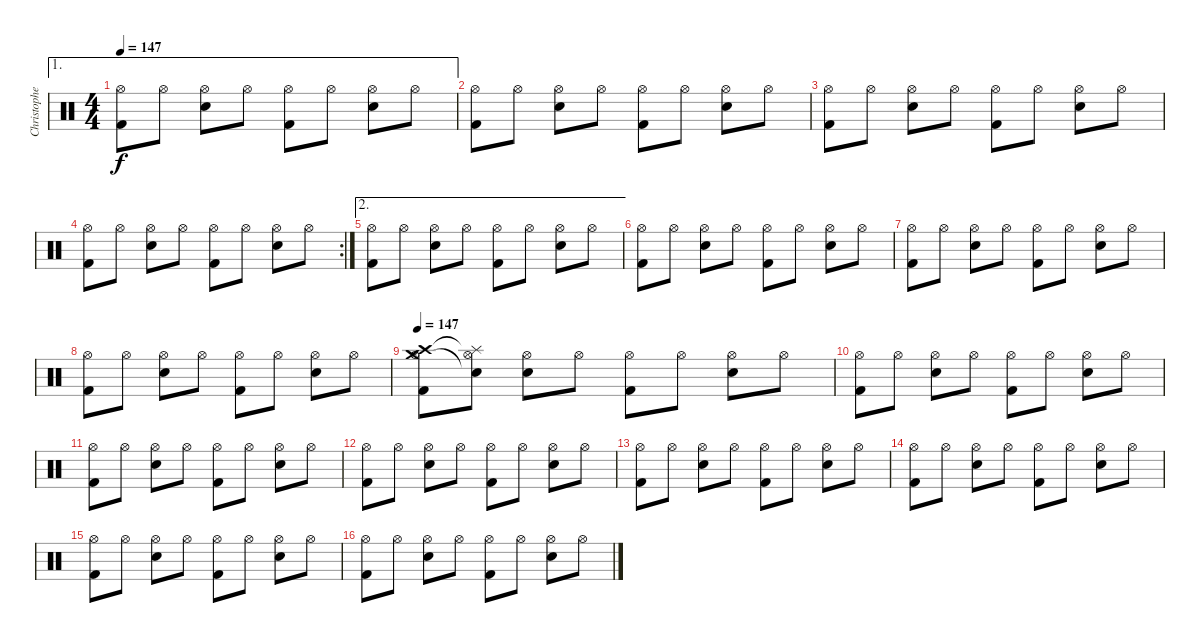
\track ("Christopher Schneider  (Drums)" "Christophe") {instrument percussion}
\staff {score}
\articulation defaults
\ae 1
\ts (4 4)
\tempo 147
\clef neutral
\ks c
("Hi-Hat (open)" "Kick (hit) 2").8{dy f} "Hi-Hat (open)".8 ("Hi-Hat (open)" "Electric Snare (hit)").8 "Hi-Hat (open)".8 ("Hi-Hat (open)" "Kick (hit) 2").8 "Hi-Hat (open)".8 ("Hi-Hat (open)" "Electric Snare (hit)").8 "Hi-Hat (open)".8 |
("Hi-Hat (open)" "Kick (hit) 2").8 "Hi-Hat (open)".8 ("Hi-Hat (open)" "Electric Snare (hit)").8 "Hi-Hat (open)".8 ("Hi-Hat (open)" "Kick (hit) 2").8 "Hi-Hat (open)".8 ("Hi-Hat (open)" "Electric Snare (hit)").8 "Hi-Hat (open)".8 |
("Hi-Hat (open)" "Kick (hit) 2").8 "Hi-Hat (open)".8 ("Hi-Hat (open)" "Electric Snare (hit)").8 "Hi-Hat (open)".8 ("Hi-Hat (open)" "Kick (hit) 2").8 "Hi-Hat (open)".8 ("Hi-Hat (open)" "Electric Snare (hit)").8 "Hi-Hat (open)".8 |
\rc 2
("Hi-Hat (open)" "Kick (hit) 2").8 "Hi-Hat (open)".8 ("Hi-Hat (open)" "Electric Snare (hit)").8 "Hi-Hat (open)".8 ("Hi-Hat (open)" "Kick (hit) 2").8 "Hi-Hat (open)".8 ("Hi-Hat (open)" "Electric Snare (hit)").8 "Hi-Hat (open)".8 |
\ae 2
("Hi-Hat (open)" "Kick (hit) 2").8 "Hi-Hat (open)".8 ("Hi-Hat (open)" "Electric Snare (hit)").8 "Hi-Hat (open)".8 ("Hi-Hat (open)" "Kick (hit) 2").8 "Hi-Hat (open)".8 ("Hi-Hat (open)" "Electric Snare (hit)").8 "Hi-Hat (open)".8 |
("Hi-Hat (open)" "Kick (hit) 2").8 "Hi-Hat (open)".8 ("Hi-Hat (open)" "Electric Snare (hit)").8 "Hi-Hat (open)".8 ("Hi-Hat (open)" "Kick (hit) 2").8 "Hi-Hat (open)".8 ("Hi-Hat (open)" "Electric Snare (hit)").8 "Hi-Hat (open)".8 |
("Hi-Hat (open)" "Kick (hit) 2").8 "Hi-Hat (open)".8 ("Hi-Hat (open)" "Electric Snare (hit)").8 "Hi-Hat (open)".8 ("Hi-Hat (open)" "Kick (hit) 2").8 "Hi-Hat (open)".8 ("Hi-Hat (open)" "Electric Snare (hit)").8 "Hi-Hat (open)".8 |
("Hi-Hat (open)" "Kick (hit) 2").8 "Hi-Hat (open)".8 ("Hi-Hat (open)" "Electric Snare (hit)").8 "Hi-Hat (open)".8 ("Hi-Hat (open)" "Kick (hit) 2").8 "Hi-Hat (open)".8 ("Hi-Hat (open)" "Electric Snare (hit)").8 "Hi-Hat (open)".8 |
\tempo 147
("Crash high (hit)" "Hi-Hat (open)" "Crash medium (hit)" "Kick (hit) 2").8 ("Splash (hit)"{t} "Hi-Hat (open)" "Snare (hit)"{t}).8 ("Hi-Hat (open)" "Electric Snare (hit)").8 "Hi-Hat (open)".8 ("Hi-Hat (open)" "Kick (hit) 2").8 "Hi-Hat (open)".8 ("Hi-Hat (open)" "Electric Snare (hit)").8 "Hi-Hat (open)".8 |
("Hi-Hat (open)" "Kick (hit) 2").8 "Hi-Hat (open)".8 ("Hi-Hat (open)" "Electric Snare (hit)").8 "Hi-Hat (open)".8 ("Hi-Hat (open)" "Kick (hit) 2").8 "Hi-Hat (open)".8 ("Hi-Hat (open)" "Electric Snare (hit)").8 "Hi-Hat (open)".8 |
("Hi-Hat (open)" "Kick (hit) 2").8 "Hi-Hat (open)".8 ("Hi-Hat (open)" "Electric Snare (hit)").8 "Hi-Hat (open)".8 ("Hi-Hat (open)" "Kick (hit) 2").8 "Hi-Hat (open)".8 ("Hi-Hat (open)" "Electric Snare (hit)").8 "Hi-Hat (open)".8 |
("Hi-Hat (open)" "Kick (hit) 2").8 "Hi-Hat (open)".8 ("Hi-Hat (open)" "Electric Snare (hit)").8 "Hi-Hat (open)".8 ("Hi-Hat (open)" "Kick (hit) 2").8 "Hi-Hat (open)".8 ("Hi-Hat (open)" "Electric Snare (hit)").8 "Hi-Hat (open)".8 |
("Hi-Hat (open)" "Kick (hit) 2").8 "Hi-Hat (open)".8 ("Hi-Hat (open)" "Electric Snare (hit)").8 "Hi-Hat (open)".8 ("Hi-Hat (open)" "Kick (hit) 2").8 "Hi-Hat (open)".8 ("Hi-Hat (open)" "Electric Snare (hit)").8 "Hi-Hat (open)".8 |
("Hi-Hat (open)" "Kick (hit) 2").8 "Hi-Hat (open)".8 ("Hi-Hat (open)" "Electric Snare (hit)").8 "Hi-Hat (open)".8 ("Hi-Hat (open)" "Kick (hit) 2").8 "Hi-Hat (open)".8 ("Hi-Hat (open)" "Electric Snare (hit)").8 "Hi-Hat (open)".8 |
("Hi-Hat (open)" "Kick (hit) 2").8 "Hi-Hat (open)".8 ("Hi-Hat (open)" "Electric Snare (hit)").8 "Hi-Hat (open)".8 ("Hi-Hat (open)" "Kick (hit) 2").8 "Hi-Hat (open)".8 ("Hi-Hat (open)" "Electric Snare (hit)").8 "Hi-Hat (open)".8 |
("Hi-Hat (open)" "Kick (hit) 2").8 "Hi-Hat (open)".8 ("Hi-Hat (open)" "Electric Snare (hit)").8 "Hi-Hat (open)".8 ("Hi-Hat (open)" "Kick (hit) 2").8 "Hi-Hat (open)".8 ("Hi-Hat (open)" "Electric Snare (hit)").8 "Hi-Hat (open)".8
